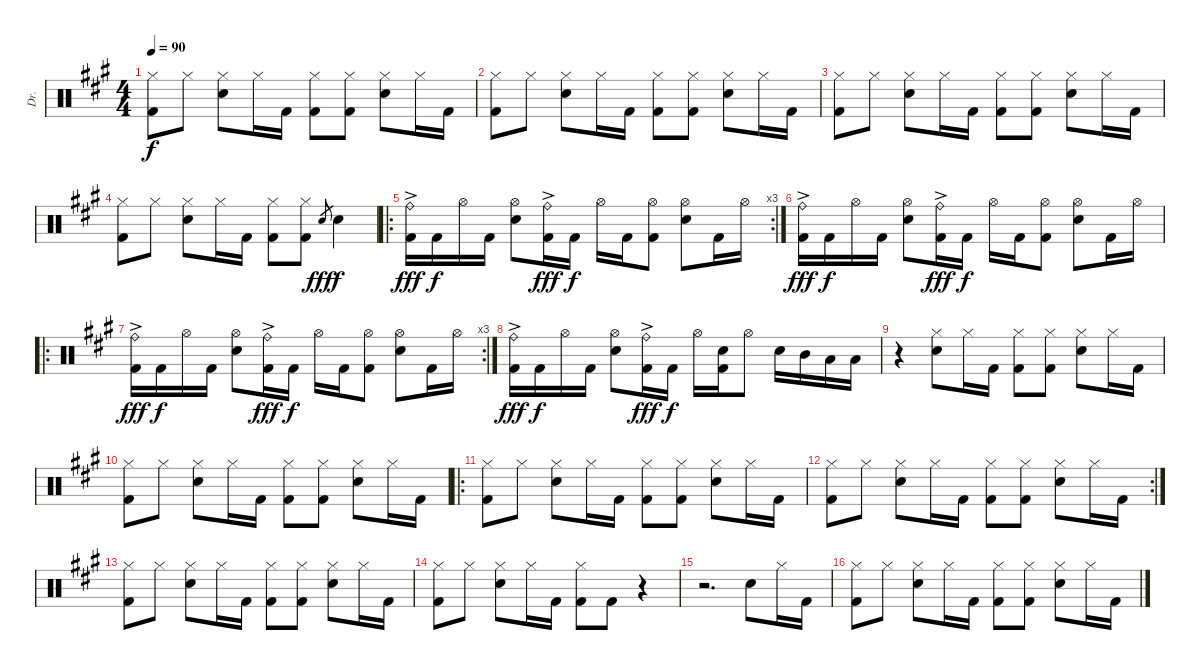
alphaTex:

\track ("Dr." "Dr.") {instrument percussion}
\staff {score}
\articulation defaults
\ts (4 4)
\tempo 90
\clef neutral
\ks a
("Hi-Hat (closed)" "Kick (hit) 2").8{dy f} "Hi-Hat (closed)".8 ("Hi-Hat (closed)" "Electric Snare (hit)").8 "Hi-Hat (closed)".16 "Kick (hit) 2".16 ("Hi-Hat (closed)" "Kick (hit) 2").8 ("Hi-Hat (closed)" "Kick (hit) 2").8 ("Hi-Hat (closed)" "Electric Snare (hit)").8 "Hi-Hat (closed)".16 "Kick (hit) 2".16 |
("Hi-Hat (closed)" "Kick (hit) 2").8 "Hi-Hat (closed)".8 ("Hi-Hat (closed)" "Electric Snare (hit)").8 "Hi-Hat (closed)".16 "Kick (hit) 2".16 ("Hi-Hat (closed)" "Kick (hit) 2").8 ("Hi-Hat (closed)" "Kick (hit) 2").8 ("Hi-Hat (closed)" "Electric Snare (hit)").8 "Hi-Hat (closed)".16 "Kick (hit) 2".16 |
("Hi-Hat (closed)" "Kick (hit) 2").8 "Hi-Hat (closed)".8 ("Hi-Hat (closed)" "Electric Snare (hit)").8 "Hi-Hat (closed)".16 "Kick (hit) 2".16 ("Hi-Hat (closed)" "Kick (hit) 2").8 ("Hi-Hat (closed)" "Kick (hit) 2").8 ("Hi-Hat (closed)" "Electric Snare (hit)").8 "Hi-Hat (closed)".16 "Kick (hit) 2".16 |
("Hi-Hat (closed)" "Kick (hit) 2").8 "Hi-Hat (closed)".8 ("Hi-Hat (closed)" "Electric Snare (hit)").8 "Hi-Hat (closed)".16 "Kick (hit) 2".16 ("Hi-Hat (closed)" "Kick (hit) 2").8 ("Hi-Hat (closed)" "Kick (hit) 2").8 "Electric Snare (hit)".8{gr dy fff} "Electric Snare (hit)".4{dy f} |
\ro
\rc 3
("Ride (bell)"{ac} "Kick (hit) 2"{ac}).16{dy fff} "Kick (hit) 2".16{dy f} "Hi-Hat (open)".16 "Kick (hit) 2".16 ("Hi-Hat (open)" "Electric Snare (hit)").8 ("Ride (bell)"{ac} "Kick (hit) 2"{ac}).16{dy fff} "Kick (hit) 2".16{dy f} "Hi-Hat (open)".16 "Kick (hit) 2".16 ("Hi-Hat (open)" "Kick (hit) 2").8 ("Hi-Hat (open)" "Electric Snare (hit)").8 "Kick (hit) 2".16 "Hi-Hat (open)".16 |
("Ride (bell)"{ac} "Kick (hit) 2"{ac}).16{dy fff} "Kick (hit) 2".16{dy f} "Hi-Hat (open)".16 "Kick (hit) 2".16 ("Hi-Hat (open)" "Electric Snare (hit)").8 ("Ride (bell)"{ac} "Kick (hit) 2"{ac}).16{dy fff} "Kick (hit) 2".16{dy f} "Hi-Hat (open)".16 "Kick (hit) 2".16 ("Hi-Hat (open)" "Kick (hit) 2").8 ("Hi-Hat (open)" "Electric Snare (hit)").8 "Kick (hit) 2".16 "Hi-Hat (open)".16 |
\ro
\rc 3
("Ride (bell)"{ac} "Kick (hit) 2"{ac}).16{dy fff} "Kick (hit) 2".16{dy f} "Hi-Hat (open)".16 "Kick (hit) 2".16 ("Hi-Hat (open)" "Electric Snare (hit)").8 ("Ride (bell)"{ac} "Kick (hit) 2"{ac}).16{dy fff} "Kick (hit) 2".16{dy f} "Hi-Hat (open)".16 "Kick (hit) 2".16 ("Hi-Hat (open)" "Kick (hit) 2").8 ("Hi-Hat (open)" "Electric Snare (hit)").8 "Kick (hit) 2".16 "Hi-Hat (open)".16 |
("Ride (bell)"{ac} "Kick (hit) 2"{ac}).16{dy fff} "Kick (hit) 2".16{dy f} "Hi-Hat (open)".16 "Kick (hit) 2".16 ("Hi-Hat (open)" "Electric Snare (hit)").8 ("Ride (bell)"{ac} "Kick (hit) 2"{ac}).16{dy fff} "Kick (hit) 2".16{dy f} "Hi-Hat (open)".16 ("Electric Snare (hit)" "Kick (hit) 2").16 "Hi-Hat (open)".8 "Electric Snare (hit)".16 "Mid Tom (hit)".16 "Low Tom (hit)".16 "Low Tom (hit)".16 |
r.4 ("Hi-Hat (closed)" "Electric Snare (hit)").8 "Hi-Hat (closed)".16 "Kick (hit) 2".16 ("Hi-Hat (closed)" "Kick (hit) 2").8 ("Hi-Hat (closed)" "Kick (hit) 2").8 ("Hi-Hat (closed)" "Electric Snare (hit)").8 "Hi-Hat (closed)".16 "Kick (hit) 2".16 |
("Hi-Hat (closed)" "Kick (hit) 2").8 "Hi-Hat (closed)".8 ("Hi-Hat (closed)" "Electric Snare (hit)").8 "Hi-Hat (closed)".16 "Kick (hit) 2".16 ("Hi-Hat (closed)" "Kick (hit) 2").8 ("Hi-Hat (closed)" "Kick (hit) 2").8 ("Hi-Hat (closed)" "Electric Snare (hit)").8 "Hi-Hat (closed)".16 "Kick (hit) 2".16 |
\ro
("Hi-Hat (closed)" "Kick (hit) 2").8 "Hi-Hat (closed)".8 ("Hi-Hat (closed)" "Electric Snare (hit)").8 "Hi-Hat (closed)".16 "Kick (hit) 2".16 ("Hi-Hat (closed)" "Kick (hit) 2").8 ("Hi-Hat (closed)" "Kick (hit) 2").8 ("Hi-Hat (closed)" "Electric Snare (hit)").8 "Hi-Hat (closed)".16 "Kick (hit) 2".16 |
\rc 2
("Hi-Hat (closed)" "Kick (hit) 2").8 "Hi-Hat (closed)".8 ("Hi-Hat (closed)" "Electric Snare (hit)").8 "Hi-Hat (closed)".16 "Kick (hit) 2".16 ("Hi-Hat (closed)" "Kick (hit) 2").8 ("Hi-Hat (closed)" "Kick (hit) 2").8 ("Hi-Hat (closed)" "Electric Snare (hit)").8 "Hi-Hat (closed)".16 "Kick (hit) 2".16 |
("Hi-Hat (closed)" "Kick (hit) 2").8 "Hi-Hat (closed)".8 ("Hi-Hat (closed)" "Electric Snare (hit)").8 "Hi-Hat (closed)".16 "Kick (hit) 2".16 ("Hi-Hat (closed)" "Kick (hit) 2").8 ("Hi-Hat (closed)" "Kick (hit) 2").8 ("Hi-Hat (closed)" "Electric Snare (hit)").8 "Hi-Hat (closed)".16 "Kick (hit) 2".16 |
("Hi-Hat (closed)" "Kick (hit) 2").8 "Hi-Hat (closed)".8 ("Hi-Hat (closed)" "Electric Snare (hit)").8 "Hi-Hat (closed)".16 "Kick (hit) 2".16 ("Hi-Hat (closed)" "Kick (hit) 2").8 "Kick (hit) 2".8 r.4 |
r.2{d} "Electric Snare (hit)".8 "Hi-Hat (closed)".16 "Kick (hit) 2".16 |
("Hi-Hat (closed)" "Kick (hit) 2").8 "Hi-Hat (closed)".8 ("Hi-Hat (closed)" "Electric Snare (hit)").8 "Hi-Hat (closed)".16 "Kick (hit) 2".16 ("Hi-Hat (closed)" "Kick (hit) 2").8 ("Hi-Hat (closed)" "Kick (hit) 2").8 ("Hi-Hat (closed)" "Electric Snare (hit)").8 "Hi-Hat (closed)".16 "Kick (hit) 2".16
